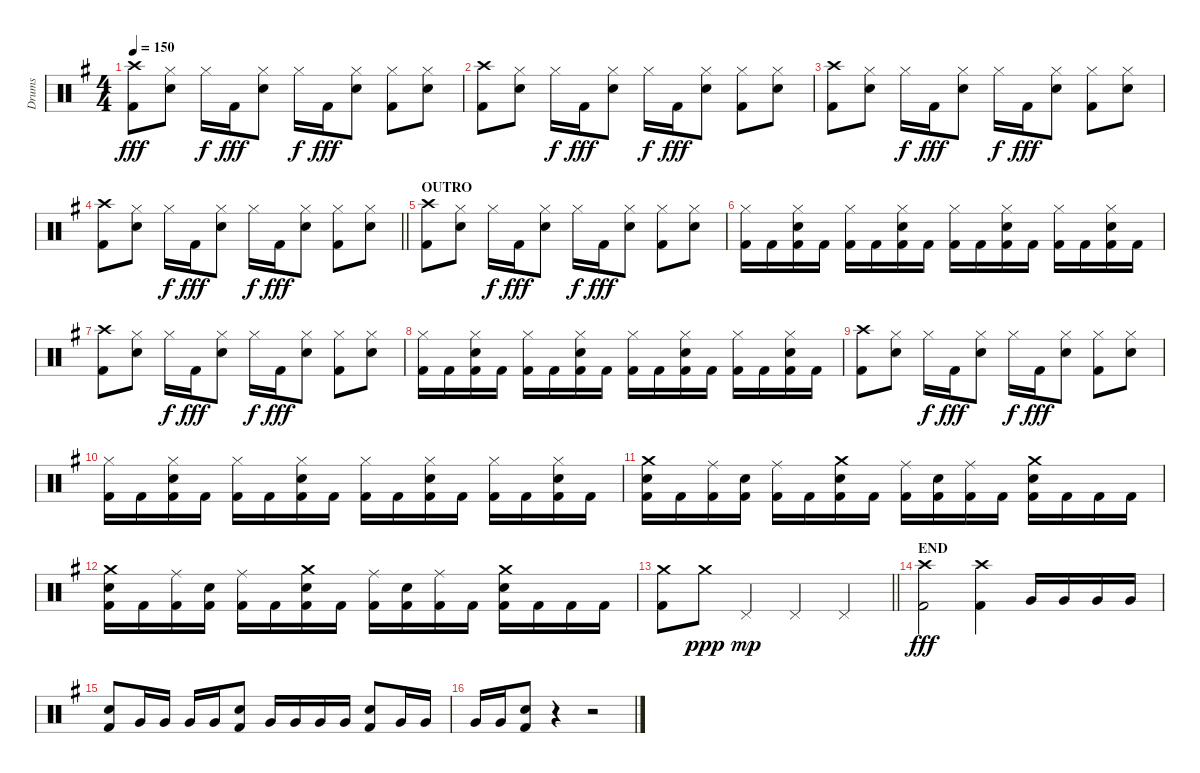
\track ("Drums" "Drums") {instrument percussion}
\staff {score}
\articulation defaults
\ts (4 4)
\tempo 150
\clef neutral
\ks eminor
("Crash high (hit)" "Kick (hit) 2").8{dy fff} ("Hi-Hat (closed)" "Snare (hit) 2").8 "Hi-Hat (closed)".16{dy f} "Kick (hit) 2".16{dy fff} ("Hi-Hat (closed)" "Snare (hit) 2").8 "Hi-Hat (closed)".16{dy f} "Kick (hit) 2".16{dy fff} ("Hi-Hat (closed)" "Snare (hit) 2").8 ("Hi-Hat (closed)" "Kick (hit) 2").8 ("Hi-Hat (closed)" "Snare (hit) 2").8 |
("Crash high (hit)" "Kick (hit) 2").8 ("Hi-Hat (closed)" "Snare (hit) 2").8 "Hi-Hat (closed)".16{dy f} "Kick (hit) 2".16{dy fff} ("Hi-Hat (closed)" "Snare (hit) 2").8 "Hi-Hat (closed)".16{dy f} "Kick (hit) 2".16{dy fff} ("Hi-Hat (closed)" "Snare (hit) 2").8 ("Hi-Hat (closed)" "Kick (hit) 2").8 ("Hi-Hat (closed)" "Snare (hit) 2").8 |
("Crash high (hit)" "Kick (hit) 2").8 ("Hi-Hat (closed)" "Snare (hit) 2").8 "Hi-Hat (closed)".16{dy f} "Kick (hit) 2".16{dy fff} ("Hi-Hat (closed)" "Snare (hit) 2").8 "Hi-Hat (closed)".16{dy f} "Kick (hit) 2".16{dy fff} ("Hi-Hat (closed)" "Snare (hit) 2").8 ("Hi-Hat (closed)" "Kick (hit) 2").8 ("Hi-Hat (closed)" "Snare (hit) 2").8 |
\barLineRight lightlight
("Crash high (hit)" "Kick (hit) 2").8 ("Hi-Hat (closed)" "Snare (hit) 2").8 "Hi-Hat (closed)".16{dy f} "Kick (hit) 2".16{dy fff} ("Hi-Hat (closed)" "Snare (hit) 2").8 "Hi-Hat (closed)".16{dy f} "Kick (hit) 2".16{dy fff} ("Hi-Hat (closed)" "Snare (hit) 2").8 ("Hi-Hat (closed)" "Kick (hit) 2").8 ("Hi-Hat (closed)" "Snare (hit) 2").8 |
\section ("" "OUTRO")
("Crash high (hit)" "Kick (hit) 2").8 ("Hi-Hat (closed)" "Snare (hit) 2").8 "Hi-Hat (closed)".16{dy f} "Kick (hit) 2".16{dy fff} ("Hi-Hat (closed)" "Snare (hit) 2").8 "Hi-Hat (closed)".16{dy f} "Kick (hit) 2".16{dy fff} ("Hi-Hat (closed)" "Snare (hit) 2").8 ("Hi-Hat (closed)" "Kick (hit) 2").8 ("Hi-Hat (closed)" "Snare (hit) 2").8 |
("Hi-Hat (closed)" "Kick (hit) 2").16 "Kick (hit) 2".16 ("Hi-Hat (closed)" "Snare (hit) 2" "Kick (hit) 2").16 "Kick (hit) 2".16 ("Hi-Hat (closed)" "Kick (hit) 2").16 "Kick (hit) 2".16 ("Hi-Hat (closed)" "Snare (hit) 2" "Kick (hit) 2").16 "Kick (hit) 2".16 ("Hi-Hat (closed)" "Kick (hit) 2").16 "Kick (hit) 2".16 ("Hi-Hat (closed)" "Snare (hit) 2" "Kick (hit) 2").16 "Kick (hit) 2".16 ("Hi-Hat (closed)" "Kick (hit) 2").16 "Kick (hit) 2".16 ("Hi-Hat (closed)" "Snare (hit) 2" "Kick (hit) 2").16 "Kick (hit) 2".16 |
("Crash high (hit)" "Kick (hit) 2").8 ("Hi-Hat (closed)" "Snare (hit) 2").8 "Hi-Hat (closed)".16{dy f} "Kick (hit) 2".16{dy fff} ("Hi-Hat (closed)" "Snare (hit) 2").8 "Hi-Hat (closed)".16{dy f} "Kick (hit) 2".16{dy fff} ("Hi-Hat (closed)" "Snare (hit) 2").8 ("Hi-Hat (closed)" "Kick (hit) 2").8 ("Hi-Hat (closed)" "Snare (hit) 2").8 |
("Hi-Hat (closed)" "Kick (hit) 2").16 "Kick (hit) 2".16 ("Hi-Hat (closed)" "Snare (hit) 2" "Kick (hit) 2").16 "Kick (hit) 2".16 ("Hi-Hat (closed)" "Kick (hit) 2").16 "Kick (hit) 2".16 ("Hi-Hat (closed)" "Snare (hit) 2" "Kick (hit) 2").16 "Kick (hit) 2".16 ("Hi-Hat (closed)" "Kick (hit) 2").16 "Kick (hit) 2".16 ("Hi-Hat (closed)" "Snare (hit) 2" "Kick (hit) 2").16 "Kick (hit) 2".16 ("Hi-Hat (closed)" "Kick (hit) 2").16 "Kick (hit) 2".16 ("Hi-Hat (closed)" "Snare (hit) 2" "Kick (hit) 2").16 "Kick (hit) 2".16 |
("Crash high (hit)" "Kick (hit) 2").8 ("Hi-Hat (closed)" "Snare (hit) 2").8 "Hi-Hat (closed)".16{dy f} "Kick (hit) 2".16{dy fff} ("Hi-Hat (closed)" "Snare (hit) 2").8 "Hi-Hat (closed)".16{dy f} "Kick (hit) 2".16{dy fff} ("Hi-Hat (closed)" "Snare (hit) 2").8 ("Hi-Hat (closed)" "Kick (hit) 2").8 ("Hi-Hat (closed)" "Snare (hit) 2").8 |
("Hi-Hat (closed)" "Kick (hit) 2").16 "Kick (hit) 2".16 ("Hi-Hat (closed)" "Snare (hit) 2" "Kick (hit) 2").16 "Kick (hit) 2".16 ("Hi-Hat (closed)" "Kick (hit) 2").16 "Kick (hit) 2".16 ("Hi-Hat (closed)" "Snare (hit) 2" "Kick (hit) 2").16 "Kick (hit) 2".16 ("Hi-Hat (closed)" "Kick (hit) 2").16 "Kick (hit) 2".16 ("Hi-Hat (closed)" "Snare (hit) 2" "Kick (hit) 2").16 "Kick (hit) 2".16 ("Hi-Hat (closed)" "Kick (hit) 2").16 "Kick (hit) 2".16 ("Hi-Hat (closed)" "Snare (hit) 2" "Kick (hit) 2").16 "Kick (hit) 2".16 |
("Crash medium (hit)" "Snare (hit) 2" "Kick (hit) 2").16 "Kick (hit) 2".16 ("Ride (middle)" "Kick (hit) 2").16 ("Snare (hit) 2" "Kick (hit) 2").16 ("Ride (middle)" "Kick (hit) 2").16 "Kick (hit) 2".16 ("Crash medium (hit)" "Snare (hit) 2" "Kick (hit) 2").16 "Kick (hit) 2".16 ("Ride (middle)" "Kick (hit) 2").16 ("Snare (hit) 2" "Kick (hit) 2").16 ("Ride (middle)" "Kick (hit) 2").16 "Kick (hit) 2".16 ("Crash medium (hit)" "Snare (hit) 2" "Kick (hit) 2").16 "Kick (hit) 2".16 "Kick (hit) 2".16 "Kick (hit) 2".16 |
("Crash medium (hit)" "Snare (hit) 2" "Kick (hit) 2").16 "Kick (hit) 2".16 ("Ride (middle)" "Kick (hit) 2").16 ("Snare (hit) 2" "Kick (hit) 2").16 ("Ride (middle)" "Kick (hit) 2").16 "Kick (hit) 2".16 ("Crash medium (hit)" "Snare (hit) 2" "Kick (hit) 2").16 "Kick (hit) 2".16 ("Ride (middle)" "Kick (hit) 2").16 ("Snare (hit) 2" "Kick (hit) 2").16 ("Ride (middle)" "Kick (hit) 2").16 "Kick (hit) 2".16 ("Crash medium (hit)" "Snare (hit) 2" "Kick (hit) 2").16 "Kick (hit) 2".16 "Kick (hit) 2".16 "Kick (hit) 2".16 |
\barLineRight lightlight
("Crash medium (hit)" "Kick (hit) 2").8 "Crash medium (hit)".8{dy ppp} "Pedal Hi-Hat (hit)".4{dy mp} "Pedal Hi-Hat (hit)".4 "Pedal Hi-Hat (hit)".4 |
\section ("" "END")
("Crash high (hit)" "Kick (hit) 2").2{dy fff} ("Crash high (hit)" "Kick (hit) 2").4 "Very Low Tom (hit)".16 "Very Low Tom (hit)".16 "Very Low Tom (hit)".16 "Very Low Tom (hit)".16 |
("Snare (hit) 2" "Kick (hit) 2").8 "Very Low Tom (hit)".16 "Very Low Tom (hit)".16 "Very Low Tom (hit)".16 "Very Low Tom (hit)".16 ("Snare (hit) 2" "Kick (hit) 2").8 "Very Low Tom (hit)".16 "Very Low Tom (hit)".16 "Very Low Tom (hit)".16 "Very Low Tom (hit)".16 ("Snare (hit) 2" "Kick (hit) 2").8 "Very Low Tom (hit)".16 "Very Low Tom (hit)".16 |
"Very Low Tom (hit)".16 "Very Low Tom (hit)".16 ("Snare (hit) 2" "Kick (hit) 2").8 r.4 r.2
